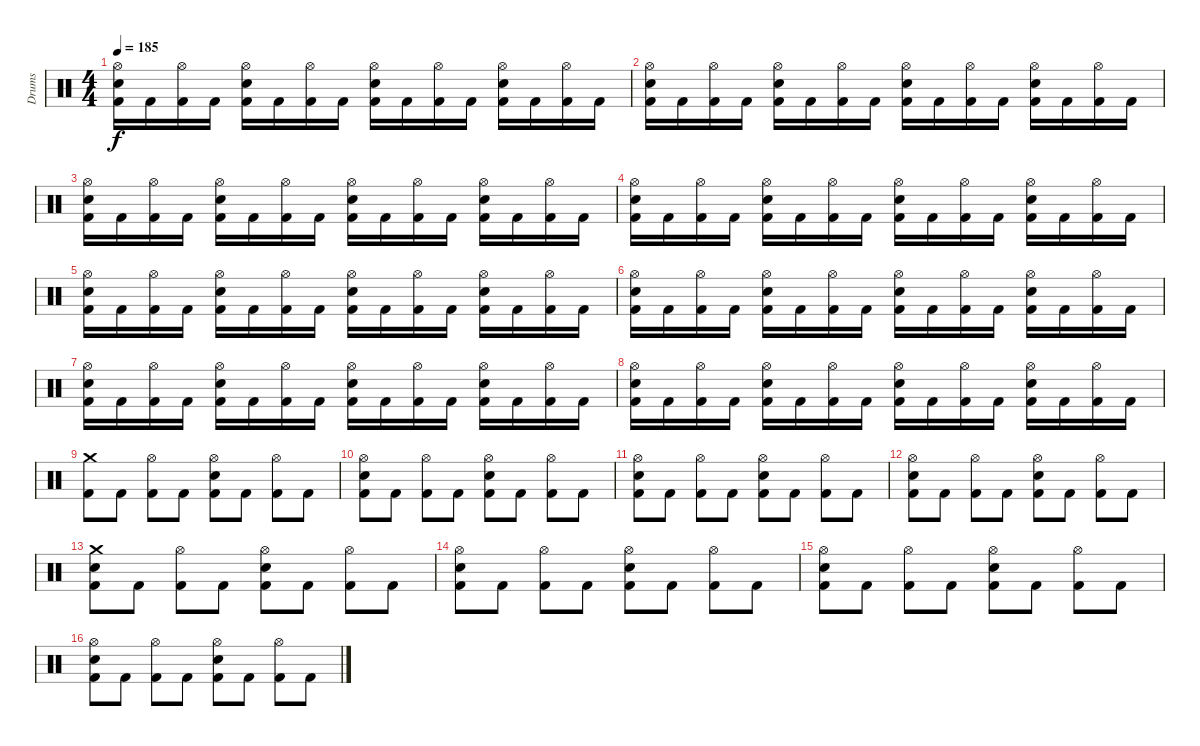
\track ("Drums" "Drums") {instrument percussion}
\staff {score}
\articulation defaults
\ts (4 4)
\tempo 185
\clef neutral
\ks c
("Hi-Hat (open)" "Electric Snare (hit)" "Kick (hit) 2").16{dy f} "Kick (hit) 2".16 ("Hi-Hat (open)" "Kick (hit) 2").16 "Kick (hit) 2".16 ("Hi-Hat (open)" "Electric Snare (hit)" "Kick (hit) 2").16 "Kick (hit) 2".16 ("Hi-Hat (open)" "Kick (hit) 2").16 "Kick (hit) 2".16 ("Hi-Hat (open)" "Electric Snare (hit)" "Kick (hit) 2").16 "Kick (hit) 2".16 ("Hi-Hat (open)" "Kick (hit) 2").16 "Kick (hit) 2".16 ("Hi-Hat (open)" "Electric Snare (hit)" "Kick (hit) 2").16 "Kick (hit) 2".16 ("Hi-Hat (open)" "Kick (hit) 2").16 "Kick (hit) 2".16 |
("Hi-Hat (open)" "Electric Snare (hit)" "Kick (hit) 2").16 "Kick (hit) 2".16 ("Hi-Hat (open)" "Kick (hit) 2").16 "Kick (hit) 2".16 ("Hi-Hat (open)" "Electric Snare (hit)" "Kick (hit) 2").16 "Kick (hit) 2".16 ("Hi-Hat (open)" "Kick (hit) 2").16 "Kick (hit) 2".16 ("Hi-Hat (open)" "Electric Snare (hit)" "Kick (hit) 2").16 "Kick (hit) 2".16 ("Hi-Hat (open)" "Kick (hit) 2").16 "Kick (hit) 2".16 ("Hi-Hat (open)" "Electric Snare (hit)" "Kick (hit) 2").16 "Kick (hit) 2".16 ("Hi-Hat (open)" "Kick (hit) 2").16 "Kick (hit) 2".16 |
("Hi-Hat (open)" "Electric Snare (hit)" "Kick (hit) 2").16 "Kick (hit) 2".16 ("Hi-Hat (open)" "Kick (hit) 2").16 "Kick (hit) 2".16 ("Hi-Hat (open)" "Electric Snare (hit)" "Kick (hit) 2").16 "Kick (hit) 2".16 ("Hi-Hat (open)" "Kick (hit) 2").16 "Kick (hit) 2".16 ("Hi-Hat (open)" "Electric Snare (hit)" "Kick (hit) 2").16 "Kick (hit) 2".16 ("Hi-Hat (open)" "Kick (hit) 2").16 "Kick (hit) 2".16 ("Hi-Hat (open)" "Electric Snare (hit)" "Kick (hit) 2").16 "Kick (hit) 2".16 ("Hi-Hat (open)" "Kick (hit) 2").16 "Kick (hit) 2".16 |
("Hi-Hat (open)" "Electric Snare (hit)" "Kick (hit) 2").16 "Kick (hit) 2".16 ("Hi-Hat (open)" "Kick (hit) 2").16 "Kick (hit) 2".16 ("Hi-Hat (open)" "Electric Snare (hit)" "Kick (hit) 2").16 "Kick (hit) 2".16 ("Hi-Hat (open)" "Kick (hit) 2").16 "Kick (hit) 2".16 ("Hi-Hat (open)" "Electric Snare (hit)" "Kick (hit) 2").16 "Kick (hit) 2".16 ("Hi-Hat (open)" "Kick (hit) 2").16 "Kick (hit) 2".16 ("Hi-Hat (open)" "Electric Snare (hit)" "Kick (hit) 2").16 "Kick (hit) 2".16 ("Hi-Hat (open)" "Kick (hit) 2").16 "Kick (hit) 2".16 |
("Hi-Hat (open)" "Electric Snare (hit)" "Kick (hit) 2").16 "Kick (hit) 2".16 ("Hi-Hat (open)" "Kick (hit) 2").16 "Kick (hit) 2".16 ("Hi-Hat (open)" "Electric Snare (hit)" "Kick (hit) 2").16 "Kick (hit) 2".16 ("Hi-Hat (open)" "Kick (hit) 2").16 "Kick (hit) 2".16 ("Hi-Hat (open)" "Electric Snare (hit)" "Kick (hit) 2").16 "Kick (hit) 2".16 ("Hi-Hat (open)" "Kick (hit) 2").16 "Kick (hit) 2".16 ("Hi-Hat (open)" "Electric Snare (hit)" "Kick (hit) 2").16 "Kick (hit) 2".16 ("Hi-Hat (open)" "Kick (hit) 2").16 "Kick (hit) 2".16 |
("Hi-Hat (open)" "Electric Snare (hit)" "Kick (hit) 2").16 "Kick (hit) 2".16 ("Hi-Hat (open)" "Kick (hit) 2").16 "Kick (hit) 2".16 ("Hi-Hat (open)" "Electric Snare (hit)" "Kick (hit) 2").16 "Kick (hit) 2".16 ("Hi-Hat (open)" "Kick (hit) 2").16 "Kick (hit) 2".16 ("Hi-Hat (open)" "Electric Snare (hit)" "Kick (hit) 2").16 "Kick (hit) 2".16 ("Hi-Hat (open)" "Kick (hit) 2").16 "Kick (hit) 2".16 ("Hi-Hat (open)" "Electric Snare (hit)" "Kick (hit) 2").16 "Kick (hit) 2".16 ("Hi-Hat (open)" "Kick (hit) 2").16 "Kick (hit) 2".16 |
("Hi-Hat (open)" "Electric Snare (hit)" "Kick (hit) 2").16 "Kick (hit) 2".16 ("Hi-Hat (open)" "Kick (hit) 2").16 "Kick (hit) 2".16 ("Hi-Hat (open)" "Electric Snare (hit)" "Kick (hit) 2").16 "Kick (hit) 2".16 ("Hi-Hat (open)" "Kick (hit) 2").16 "Kick (hit) 2".16 ("Hi-Hat (open)" "Electric Snare (hit)" "Kick (hit) 2").16 "Kick (hit) 2".16 ("Hi-Hat (open)" "Kick (hit) 2").16 "Kick (hit) 2".16 ("Hi-Hat (open)" "Electric Snare (hit)" "Kick (hit) 2").16 "Kick (hit) 2".16 ("Hi-Hat (open)" "Kick (hit) 2").16 "Kick (hit) 2".16 |
("Hi-Hat (open)" "Electric Snare (hit)" "Kick (hit) 2").16 "Kick (hit) 2".16 ("Hi-Hat (open)" "Kick (hit) 2").16 "Kick (hit) 2".16 ("Hi-Hat (open)" "Electric Snare (hit)" "Kick (hit) 2").16 "Kick (hit) 2".16 ("Hi-Hat (open)" "Kick (hit) 2").16 "Kick (hit) 2".16 ("Hi-Hat (open)" "Electric Snare (hit)" "Kick (hit) 2").16 "Kick (hit) 2".16 ("Hi-Hat (open)" "Kick (hit) 2").16 "Kick (hit) 2".16 ("Hi-Hat (open)" "Electric Snare (hit)" "Kick (hit) 2").16 "Kick (hit) 2".16 ("Hi-Hat (open)" "Kick (hit) 2").16 "Kick (hit) 2".16 |
("Crash medium (hit)" "Kick (hit) 2").8 "Kick (hit) 2".8 ("Hi-Hat (open)" "Kick (hit) 2").8 "Kick (hit) 2".8 ("Hi-Hat (open)" "Electric Snare (hit)" "Kick (hit) 2").8 "Kick (hit) 2".8 ("Hi-Hat (open)" "Kick (hit) 2").8 "Kick (hit) 2".8 |
("Hi-Hat (open)" "Electric Snare (hit)" "Kick (hit) 2").8 "Kick (hit) 2".8 ("Hi-Hat (open)" "Kick (hit) 2").8 "Kick (hit) 2".8 ("Hi-Hat (open)" "Electric Snare (hit)" "Kick (hit) 2").8 "Kick (hit) 2".8 ("Hi-Hat (open)" "Kick (hit) 2").8 "Kick (hit) 2".8 |
("Hi-Hat (open)" "Electric Snare (hit)" "Kick (hit) 2").8 "Kick (hit) 2".8 ("Hi-Hat (open)" "Kick (hit) 2").8 "Kick (hit) 2".8 ("Hi-Hat (open)" "Electric Snare (hit)" "Kick (hit) 2").8 "Kick (hit) 2".8 ("Hi-Hat (open)" "Kick (hit) 2").8 "Kick (hit) 2".8 |
("Hi-Hat (open)" "Electric Snare (hit)" "Kick (hit) 2").8 "Kick (hit) 2".8 ("Hi-Hat (open)" "Kick (hit) 2").8 "Kick (hit) 2".8 ("Hi-Hat (open)" "Electric Snare (hit)" "Kick (hit) 2").8 "Kick (hit) 2".8 ("Hi-Hat (open)" "Kick (hit) 2").8 "Kick (hit) 2".8 |
("Crash medium (hit)" "Electric Snare (hit)" "Kick (hit) 2").8 "Kick (hit) 2".8 ("Hi-Hat (open)" "Kick (hit) 2").8 "Kick (hit) 2".8 ("Hi-Hat (open)" "Electric Snare (hit)" "Kick (hit) 2").8 "Kick (hit) 2".8 ("Hi-Hat (open)" "Kick (hit) 2").8 "Kick (hit) 2".8 |
("Hi-Hat (open)" "Electric Snare (hit)" "Kick (hit) 2").8 "Kick (hit) 2".8 ("Hi-Hat (open)" "Kick (hit) 2").8 "Kick (hit) 2".8 ("Hi-Hat (open)" "Electric Snare (hit)" "Kick (hit) 2").8 "Kick (hit) 2".8 ("Hi-Hat (open)" "Kick (hit) 2").8 "Kick (hit) 2".8 |
("Hi-Hat (open)" "Electric Snare (hit)" "Kick (hit) 2").8 "Kick (hit) 2".8 ("Hi-Hat (open)" "Kick (hit) 2").8 "Kick (hit) 2".8 ("Hi-Hat (open)" "Electric Snare (hit)" "Kick (hit) 2").8 "Kick (hit) 2".8 ("Hi-Hat (open)" "Kick (hit) 2").8 "Kick (hit) 2".8 |
("Hi-Hat (open)" "Electric Snare (hit)" "Kick (hit) 2").8 "Kick (hit) 2".8 ("Hi-Hat (open)" "Kick (hit) 2").8 "Kick (hit) 2".8 ("Hi-Hat (open)" "Electric Snare (hit)" "Kick (hit) 2").8 "Kick (hit) 2".8 ("Hi-Hat (open)" "Kick (hit) 2").8 "Kick (hit) 2".8
